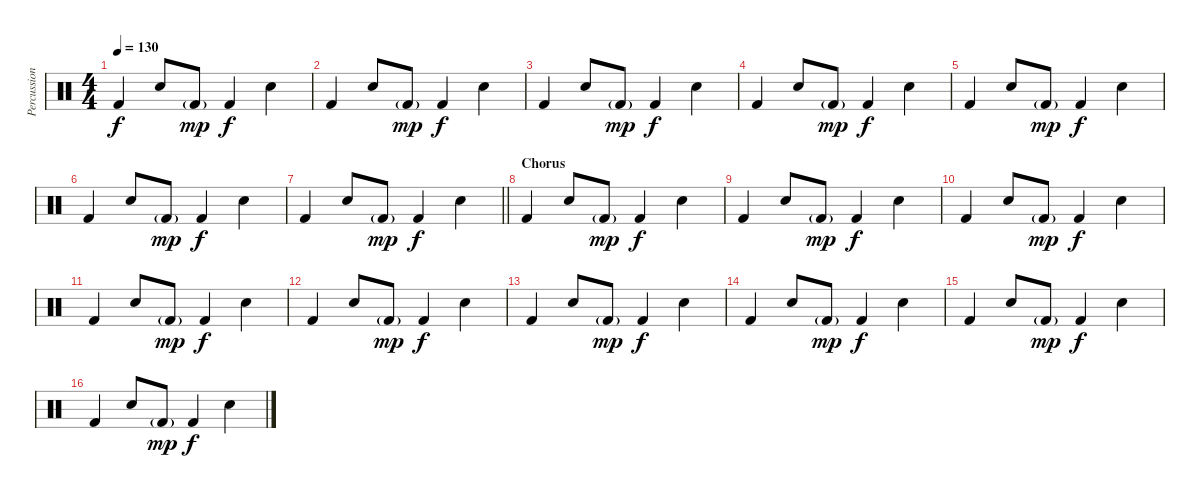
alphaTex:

\track ("Percussion" "Percussion") {instrument percussion}
\staff {score}
\articulation defaults
\ts (4 4)
\tempo 130
\clef neutral
\ks c "Kick (hit) 2".4{dy f} "Snare (hit) 2".8 "Kick (hit) 2"{g}.8{dy mp} "Kick (hit) 2".4{dy f} "Snare (hit) 2".4
|
"Kick (hit) 2".4 "Snare (hit) 2".8 "Kick (hit) 2"{g}.8{dy mp} "Kick (hit) 2".4{dy f} "Snare (hit) 2".4 |
"Kick (hit) 2".4 "Snare (hit) 2".8 "Kick (hit) 2"{g}.8{dy mp} "Kick (hit) 2".4{dy f} "Snare (hit) 2".4 |
"Kick (hit) 2".4 "Snare (hit) 2".8 "Kick (hit) 2"{g}.8{dy mp} "Kick (hit) 2".4{dy f} "Snare (hit) 2".4 |
"Kick (hit) 2".4 "Snare (hit) 2".8 "Kick (hit) 2"{g}.8{dy mp} "Kick (hit) 2".4{dy f} "Snare (hit) 2".4 |
"Kick (hit) 2".4 "Snare (hit) 2".8 "Kick (hit) 2"{g}.8{dy mp} "Kick (hit) 2".4{dy f} "Snare (hit) 2".4 |
\barLineRight lightlight "Kick (hit) 2".4 "Snare (hit) 2".8 "Kick (hit) 2"{g}.8{dy mp} "Kick (hit) 2".4{dy f} "Snare (hit) 2".4
|
\section ("" "Chorus")
"Kick (hit) 2".4 "Snare (hit) 2".8 "Kick (hit) 2"{g}.8{dy mp} "Kick (hit) 2".4{dy f} "Snare (hit) 2".4 |
"Kick (hit) 2".4 "Snare (hit) 2".8 "Kick (hit) 2"{g}.8{dy mp} "Kick (hit) 2".4{dy f} "Snare (hit) 2".4 |
"Kick (hit) 2".4 "Snare (hit) 2".8 "Kick (hit) 2"{g}.8{dy mp} "Kick (hit) 2".4{dy f} "Snare (hit) 2".4 |
"Kick (hit) 2".4 "Snare (hit) 2".8 "Kick (hit) 2"{g}.8{dy mp} "Kick (hit) 2".4{dy f} "Snare (hit) 2".4 |
"Kick (hit) 2".4 "Snare (hit) 2".8 "Kick (hit) 2"{g}.8{dy mp} "Kick (hit) 2".4{dy f} "Snare (hit) 2".4 |
"Kick (hit) 2".4 "Snare (hit) 2".8 "Kick (hit) 2"{g}.8{dy mp} "Kick (hit) 2".4{dy f} "Snare (hit) 2".4 |
"Kick (hit) 2".4 "Snare (hit) 2".8 "Kick (hit) 2"{g}.8{dy mp} "Kick (hit) 2".4{dy f} "Snare (hit) 2".4 |
"Kick (hit) 2".4 "Snare (hit) 2".8 "Kick (hit) 2"{g}.8{dy mp} "Kick (hit) 2".4{dy f} "Snare (hit) 2".4 |
"Kick (hit) 2".4 "Snare (hit) 2".8 "Kick (hit) 2"{g}.8{dy mp} "Kick (hit) 2".4{dy f} "Snare (hit) 2".4
